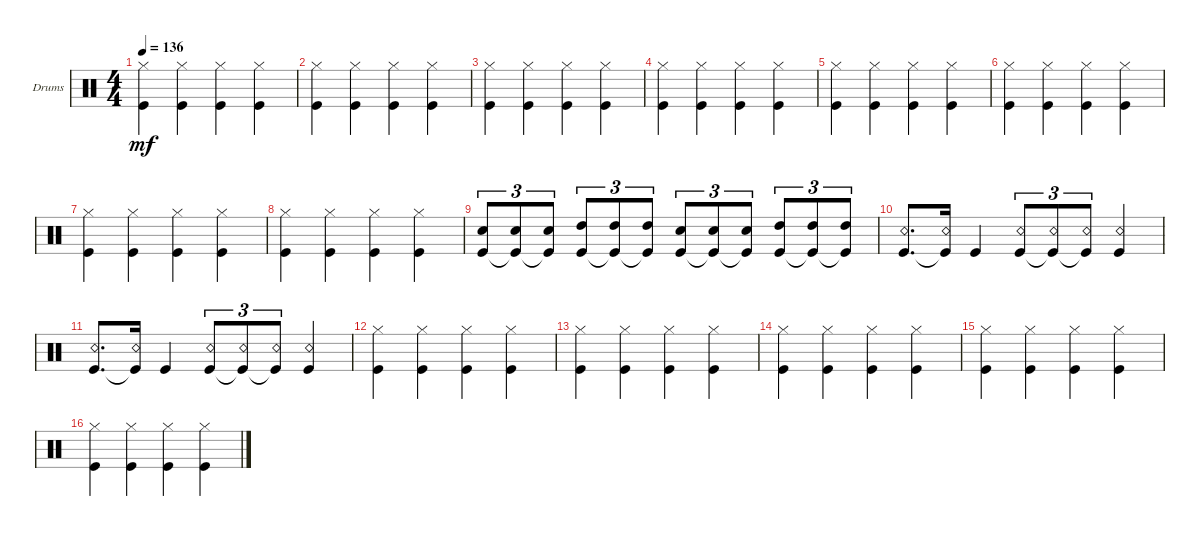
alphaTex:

\defaultSystemsLayout 4
\bracketExtendMode groupsimilarinstruments
\firstSystemTrackNameOrientation horizontal
\otherSystemsTrackNameOrientation horizontal
\track ("Drumkit" "Drums") {instrument percussion}
\staff {score}
\articulation defaults
\ts (4 4)
\tempo 136
\clef neutral
\ks c
("Hi-Hat (closed)" "Kick (hit)").4{dy mf} ("Hi-Hat (closed)" "Kick (hit)").4 ("Hi-Hat (closed)" "Kick (hit)").4 ("Hi-Hat (closed)" "Kick (hit)").4 |
("Hi-Hat (closed)" "Kick (hit)").4 ("Hi-Hat (closed)" "Kick (hit)").4 ("Hi-Hat (closed)" "Kick (hit)").4 ("Hi-Hat (closed)" "Kick (hit)").4 |
("Hi-Hat (closed)" "Kick (hit)").4 ("Hi-Hat (closed)" "Kick (hit)").4 ("Hi-Hat (closed)" "Kick (hit)").4 ("Hi-Hat (closed)" "Kick (hit)").4 |
("Hi-Hat (closed)" "Kick (hit)").4 ("Hi-Hat (closed)" "Kick (hit)").4 ("Hi-Hat (closed)" "Kick (hit)").4 ("Hi-Hat (closed)" "Kick (hit)").4 |
("Hi-Hat (closed)" "Kick (hit)").4 ("Hi-Hat (closed)" "Kick (hit)").4 ("Hi-Hat (closed)" "Kick (hit)").4 ("Hi-Hat (closed)" "Kick (hit)").4 |
("Hi-Hat (closed)" "Kick (hit)").4 ("Hi-Hat (closed)" "Kick (hit)").4 ("Hi-Hat (closed)" "Kick (hit)").4 ("Hi-Hat (closed)" "Kick (hit)").4 |
("Hi-Hat (closed)" "Kick (hit)").4 ("Hi-Hat (closed)" "Kick (hit)").4 ("Hi-Hat (closed)" "Kick (hit)").4 ("Hi-Hat (closed)" "Kick (hit)").4 |
("Hi-Hat (closed)" "Kick (hit)").4 ("Hi-Hat (closed)" "Kick (hit)").4 ("Hi-Hat (closed)" "Kick (hit)").4 ("Hi-Hat (closed)" "Kick (hit)").4 |
("Snare (hit) 2" "Kick (hit)").8{tu (3 2)} ("Snare (hit) 2" "Kick (hit)"{t}).8{tu (3 2)} ("Snare (hit) 2" "Kick (hit)"{t}).8{tu (3 2)} ("High Tom (hit)" "Kick (hit)").8{tu (3 2)} ("High Tom (hit)" "Kick (hit)"{t}).8{tu (3 2)} ("High Tom (hit)" "Kick (hit)"{t}).8{tu (3 2)} ("Snare (hit) 2" "Kick (hit)").8{tu (3 2)} ("Snare (hit) 2" "Kick (hit)"{t}).8{tu (3 2)} ("Snare (hit) 2" "Kick (hit)"{t}).8{tu (3 2)} ("High Tom (hit)" "Kick (hit)").8{tu (3 2)} ("High Tom (hit)" "Kick (hit)"{t}).8{tu (3 2)} ("High Tom (hit)" "Kick (hit)"{t}).8{tu (3 2)} |
("Kick (hit)" "Snare (rim shot)").8{d} ("Kick (hit)"{t} "Snare (rim shot)").16 "Kick (hit)".4 ("Kick (hit)" "Snare (rim shot)").8{tu (3 2)} ("Kick (hit)"{t} "Snare (rim shot)").8{tu (3 2)} ("Kick (hit)"{t} "Snare (rim shot)").8{tu (3 2)} ("Kick (hit)" "Snare (rim shot)").4 |
("Kick (hit)" "Snare (rim shot)").8{d} ("Kick (hit)"{t} "Snare (rim shot)").16 "Kick (hit)".4 ("Kick (hit)" "Snare (rim shot)").8{tu (3 2)} ("Kick (hit)"{t} "Snare (rim shot)").8{tu (3 2)} ("Kick (hit)"{t} "Snare (rim shot)").8{tu (3 2)} ("Kick (hit)" "Snare (rim shot)").4 |
("Hi-Hat (closed)" "Kick (hit)").4 ("Hi-Hat (closed)" "Kick (hit)").4 ("Hi-Hat (closed)" "Kick (hit)").4 ("Hi-Hat (closed)" "Kick (hit)").4 |
("Hi-Hat (closed)" "Kick (hit)").4 ("Hi-Hat (closed)" "Kick (hit)").4 ("Hi-Hat (closed)" "Kick (hit)").4 ("Hi-Hat (closed)" "Kick (hit)").4 |
("Hi-Hat (closed)" "Kick (hit)").4 ("Hi-Hat (closed)" "Kick (hit)").4 ("Hi-Hat (closed)" "Kick (hit)").4 ("Hi-Hat (closed)" "Kick (hit)").4 |
("Hi-Hat (closed)" "Kick (hit)").4 ("Hi-Hat (closed)" "Kick (hit)").4 ("Hi-Hat (closed)" "Kick (hit)").4 ("Hi-Hat (closed)" "Kick (hit)").4 |
("Hi-Hat (closed)" "Kick (hit)").4 ("Hi-Hat (closed)" "Kick (hit)").4 ("Hi-Hat (closed)" "Kick (hit)").4 ("Hi-Hat (closed)" "Kick (hit)").4
